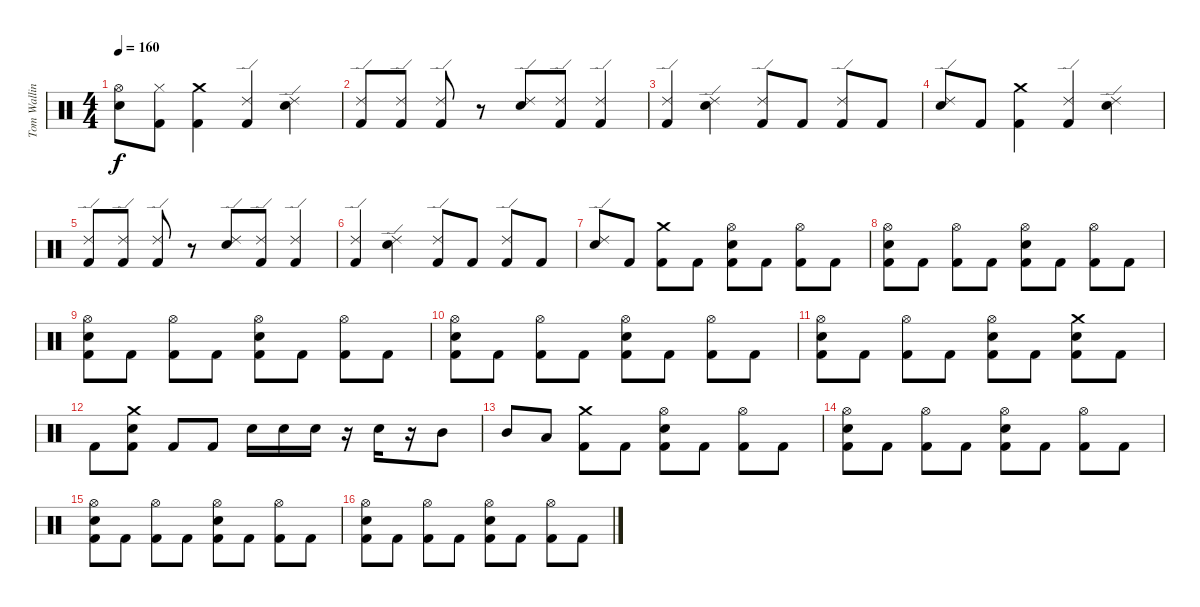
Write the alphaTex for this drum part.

\track ("Tom Walling (Drums)" "Tom Wallin") {instrument percussion}
\staff {score}
\articulation defaults
\ts (4 4)
\tempo 160
\clef neutral
\ks c
("Hi-Hat (open)" "Electric Snare (hit)").8{dy f} ("Hi-Hat (closed)" "Kick (hit) 2").8 ("Crash medium (hit)" "Kick (hit) 2").4 ("Ride (edge) 2" "Kick (hit) 2").4 ("Ride (edge) 2" "Electric Snare (hit)").4 |
("Ride (edge) 2" "Kick (hit) 2").8 ("Ride (edge) 2" "Kick (hit) 2").8 ("Ride (edge) 2" "Kick (hit) 2").8 r.8 ("Ride (edge) 2" "Electric Snare (hit)").8 ("Ride (edge) 2" "Kick (hit) 2").8 ("Ride (edge) 2" "Kick (hit) 2").4 |
("Ride (edge) 2" "Kick (hit) 2").4 ("Ride (edge) 2" "Electric Snare (hit)").4 ("Ride (edge) 2" "Kick (hit) 2").8 "Kick (hit) 2".8 ("Ride (edge) 2" "Kick (hit) 2").8 "Kick (hit) 2".8 |
("Ride (edge) 2" "Electric Snare (hit)").8 "Kick (hit) 2".8 ("Crash medium (hit)" "Kick (hit) 2").4 ("Ride (edge) 2" "Kick (hit) 2").4 ("Ride (edge) 2" "Electric Snare (hit)").4 |
("Ride (edge) 2" "Kick (hit) 2").8 ("Ride (edge) 2" "Kick (hit) 2").8 ("Ride (edge) 2" "Kick (hit) 2").8 r.8 ("Ride (edge) 2" "Electric Snare (hit)").8 ("Ride (edge) 2" "Kick (hit) 2").8 ("Ride (edge) 2" "Kick (hit) 2").4 |
("Ride (edge) 2" "Kick (hit) 2").4 ("Ride (edge) 2" "Electric Snare (hit)").4 ("Ride (edge) 2" "Kick (hit) 2").8 "Kick (hit) 2".8 ("Ride (edge) 2" "Kick (hit) 2").8 "Kick (hit) 2".8 |
("Ride (edge) 2" "Electric Snare (hit)").8 "Kick (hit) 2".8 ("Crash medium (hit)" "Kick (hit) 2").8 "Kick (hit) 2".8 ("Hi-Hat (open)" "Electric Snare (hit)" "Kick (hit) 2").8 "Kick (hit) 2".8 ("Hi-Hat (open)" "Kick (hit) 2").8 "Kick (hit) 2".8 |
("Hi-Hat (open)" "Electric Snare (hit)" "Kick (hit) 2").8 "Kick (hit) 2".8 ("Hi-Hat (open)" "Kick (hit) 2").8 "Kick (hit) 2".8 ("Hi-Hat (open)" "Electric Snare (hit)" "Kick (hit) 2").8 "Kick (hit) 2".8 ("Hi-Hat (open)" "Kick (hit) 2").8 "Kick (hit) 2".8 |
("Hi-Hat (open)" "Electric Snare (hit)" "Kick (hit) 2").8 "Kick (hit) 2".8 ("Hi-Hat (open)" "Kick (hit) 2").8 "Kick (hit) 2".8 ("Hi-Hat (open)" "Electric Snare (hit)" "Kick (hit) 2").8 "Kick (hit) 2".8 ("Hi-Hat (open)" "Kick (hit) 2").8 "Kick (hit) 2".8 |
("Hi-Hat (open)" "Electric Snare (hit)" "Kick (hit) 2").8 "Kick (hit) 2".8 ("Hi-Hat (open)" "Kick (hit) 2").8 "Kick (hit) 2".8 ("Hi-Hat (open)" "Electric Snare (hit)" "Kick (hit) 2").8 "Kick (hit) 2".8 ("Hi-Hat (open)" "Kick (hit) 2").8 "Kick (hit) 2".8 |
("Hi-Hat (open)" "Electric Snare (hit)" "Kick (hit) 2").8 "Kick (hit) 2".8 ("Hi-Hat (open)" "Kick (hit) 2").8 "Kick (hit) 2".8 ("Hi-Hat (open)" "Electric Snare (hit)" "Kick (hit) 2").8 "Kick (hit) 2".8 ("Crash medium (hit)" "Electric Snare (hit)" "Kick (hit) 2").8 "Kick (hit) 2".8 |
"Kick (hit) 2".8 ("Crash medium (hit)" "Electric Snare (hit)" "Kick (hit) 2").8 "Kick (hit) 2".8 "Kick (hit) 2".8 "Electric Snare (hit)".16 "Electric Snare (hit)".16 "Electric Snare (hit)".16 r.16 "Electric Snare (hit)".16 r.16 "Mid Tom (hit)".8 |
"Mid Tom (hit)".8 "Low Tom (hit)".8 ("Crash medium (hit)" "Kick (hit) 2").8 "Kick (hit) 2".8 ("Hi-Hat (open)" "Electric Snare (hit)" "Kick (hit) 2").8 "Kick (hit) 2".8 ("Hi-Hat (open)" "Kick (hit) 2").8 "Kick (hit) 2".8 |
("Hi-Hat (open)" "Electric Snare (hit)" "Kick (hit) 2").8 "Kick (hit) 2".8 ("Hi-Hat (open)" "Kick (hit) 2").8 "Kick (hit) 2".8 ("Hi-Hat (open)" "Electric Snare (hit)" "Kick (hit) 2").8 "Kick (hit) 2".8 ("Hi-Hat (open)" "Kick (hit) 2").8 "Kick (hit) 2".8 |
("Hi-Hat (open)" "Electric Snare (hit)" "Kick (hit) 2").8 "Kick (hit) 2".8 ("Hi-Hat (open)" "Kick (hit) 2").8 "Kick (hit) 2".8 ("Hi-Hat (open)" "Electric Snare (hit)" "Kick (hit) 2").8 "Kick (hit) 2".8 ("Hi-Hat (open)" "Kick (hit) 2").8 "Kick (hit) 2".8 |
("Hi-Hat (open)" "Electric Snare (hit)" "Kick (hit) 2").8 "Kick (hit) 2".8 ("Hi-Hat (open)" "Kick (hit) 2").8 "Kick (hit) 2".8 ("Hi-Hat (open)" "Electric Snare (hit)" "Kick (hit) 2").8 "Kick (hit) 2".8 ("Hi-Hat (open)" "Kick (hit) 2").8 "Kick (hit) 2".8
